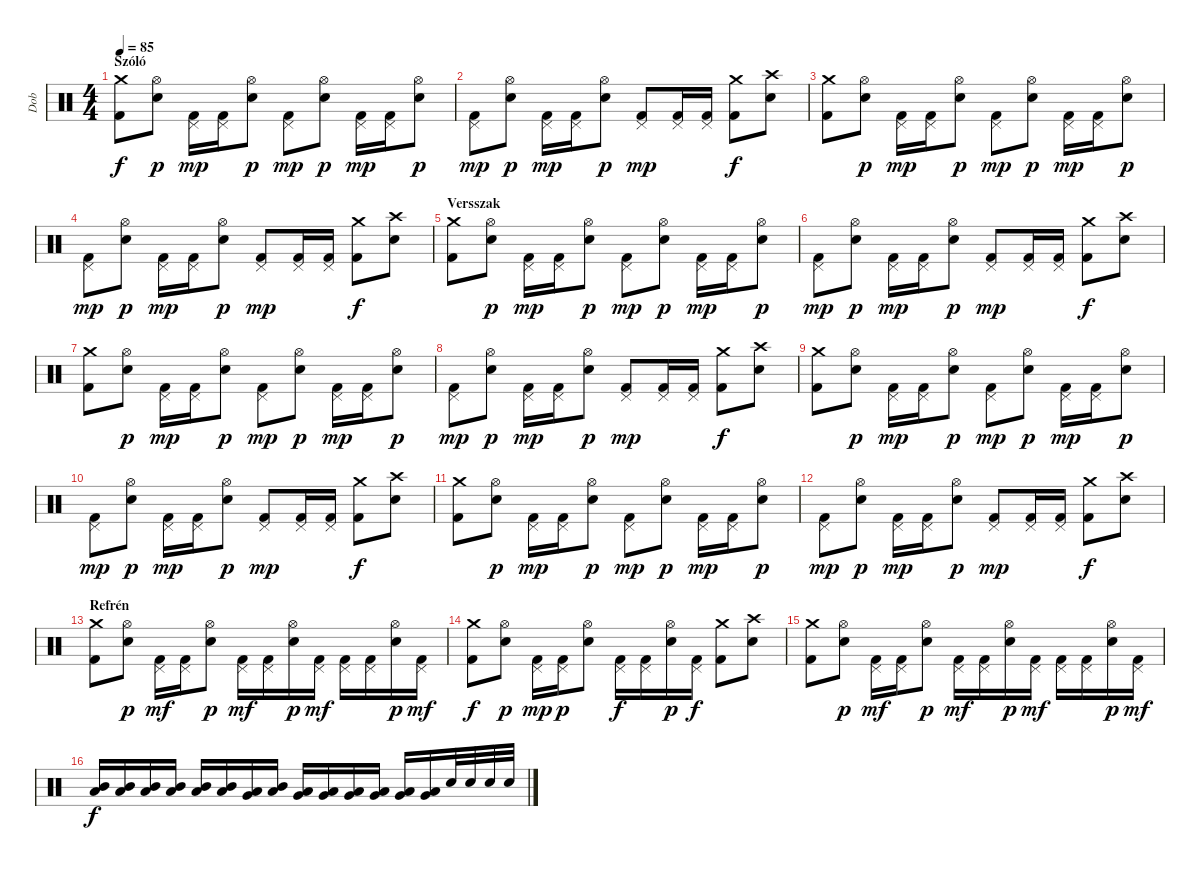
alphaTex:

\track ("Dob" "Dob") {instrument percussion}
\staff {score}
\articulation defaults
\ts (4 4)
\section ("" "Szóló")
\tempo 85
\clef neutral
\ks c
("Kick (hit) 2" "Crash medium (hit)").8{dy f} ("Snare (hit) 2" "Hi-Hat (open)").8{dy p} ("Kick (hit) 2" "Pedal Hi-Hat (hit)").16{dy mp} ("Kick (hit) 2" "Pedal Hi-Hat (hit)").16 ("Snare (hit) 2" "Hi-Hat (open)").8{dy p} ("Kick (hit) 2" "Pedal Hi-Hat (hit)").8{dy mp} ("Snare (hit) 2" "Hi-Hat (open)").8{dy p} ("Kick (hit) 2" "Pedal Hi-Hat (hit)").16{dy mp} ("Kick (hit) 2" "Pedal Hi-Hat (hit)").16 ("Snare (hit) 2" "Hi-Hat (open)").8{dy p} |
("Kick (hit) 2" "Pedal Hi-Hat (hit)").8{dy mp} ("Snare (hit) 2" "Hi-Hat (open)").8{dy p} ("Kick (hit) 2" "Pedal Hi-Hat (hit)").16{dy mp} ("Kick (hit) 2" "Pedal Hi-Hat (hit)").16 ("Snare (hit) 2" "Hi-Hat (open)").8{dy p} ("Kick (hit) 2" "Pedal Hi-Hat (hit)").8{dy mp} ("Kick (hit) 2" "Pedal Hi-Hat (hit)").16 ("Kick (hit) 2" "Pedal Hi-Hat (hit)").16 ("Kick (hit) 2" "Crash medium (hit)").8{dy f} ("Snare (hit) 2" "Crash high (hit)").8 |
("Kick (hit) 2" "Crash medium (hit)").8 ("Snare (hit) 2" "Hi-Hat (open)").8{dy p} ("Kick (hit) 2" "Pedal Hi-Hat (hit)").16{dy mp} ("Kick (hit) 2" "Pedal Hi-Hat (hit)").16 ("Snare (hit) 2" "Hi-Hat (open)").8{dy p} ("Kick (hit) 2" "Pedal Hi-Hat (hit)").8{dy mp} ("Snare (hit) 2" "Hi-Hat (open)").8{dy p} ("Kick (hit) 2" "Pedal Hi-Hat (hit)").16{dy mp} ("Kick (hit) 2" "Pedal Hi-Hat (hit)").16 ("Snare (hit) 2" "Hi-Hat (open)").8{dy p} |
("Kick (hit) 2" "Pedal Hi-Hat (hit)").8{dy mp} ("Snare (hit) 2" "Hi-Hat (open)").8{dy p} ("Kick (hit) 2" "Pedal Hi-Hat (hit)").16{dy mp} ("Kick (hit) 2" "Pedal Hi-Hat (hit)").16 ("Snare (hit) 2" "Hi-Hat (open)").8{dy p} ("Kick (hit) 2" "Pedal Hi-Hat (hit)").8{dy mp} ("Kick (hit) 2" "Pedal Hi-Hat (hit)").16 ("Kick (hit) 2" "Pedal Hi-Hat (hit)").16 ("Kick (hit) 2" "Crash medium (hit)").8{dy f} ("Snare (hit) 2" "Crash high (hit)").8 |
\section ("" "Versszak")
("Kick (hit) 2" "Crash medium (hit)").8 ("Snare (hit) 2" "Hi-Hat (open)").8{dy p} ("Kick (hit) 2" "Pedal Hi-Hat (hit)").16{dy mp} ("Kick (hit) 2" "Pedal Hi-Hat (hit)").16 ("Snare (hit) 2" "Hi-Hat (open)").8{dy p} ("Kick (hit) 2" "Pedal Hi-Hat (hit)").8{dy mp} ("Snare (hit) 2" "Hi-Hat (open)").8{dy p} ("Kick (hit) 2" "Pedal Hi-Hat (hit)").16{dy mp} ("Kick (hit) 2" "Pedal Hi-Hat (hit)").16 ("Snare (hit) 2" "Hi-Hat (open)").8{dy p} |
("Kick (hit) 2" "Pedal Hi-Hat (hit)").8{dy mp} ("Snare (hit) 2" "Hi-Hat (open)").8{dy p} ("Kick (hit) 2" "Pedal Hi-Hat (hit)").16{dy mp} ("Kick (hit) 2" "Pedal Hi-Hat (hit)").16 ("Snare (hit) 2" "Hi-Hat (open)").8{dy p} ("Kick (hit) 2" "Pedal Hi-Hat (hit)").8{dy mp} ("Kick (hit) 2" "Pedal Hi-Hat (hit)").16 ("Kick (hit) 2" "Pedal Hi-Hat (hit)").16 ("Kick (hit) 2" "Crash medium (hit)").8{dy f} ("Snare (hit) 2" "Crash high (hit)").8 |
("Kick (hit) 2" "Crash medium (hit)").8 ("Snare (hit) 2" "Hi-Hat (open)").8{dy p} ("Kick (hit) 2" "Pedal Hi-Hat (hit)").16{dy mp} ("Kick (hit) 2" "Pedal Hi-Hat (hit)").16 ("Snare (hit) 2" "Hi-Hat (open)").8{dy p} ("Kick (hit) 2" "Pedal Hi-Hat (hit)").8{dy mp} ("Snare (hit) 2" "Hi-Hat (open)").8{dy p} ("Kick (hit) 2" "Pedal Hi-Hat (hit)").16{dy mp} ("Kick (hit) 2" "Pedal Hi-Hat (hit)").16 ("Snare (hit) 2" "Hi-Hat (open)").8{dy p} |
("Kick (hit) 2" "Pedal Hi-Hat (hit)").8{dy mp} ("Snare (hit) 2" "Hi-Hat (open)").8{dy p} ("Kick (hit) 2" "Pedal Hi-Hat (hit)").16{dy mp} ("Kick (hit) 2" "Pedal Hi-Hat (hit)").16 ("Snare (hit) 2" "Hi-Hat (open)").8{dy p} ("Kick (hit) 2" "Pedal Hi-Hat (hit)").8{dy mp} ("Kick (hit) 2" "Pedal Hi-Hat (hit)").16 ("Kick (hit) 2" "Pedal Hi-Hat (hit)").16 ("Kick (hit) 2" "Crash medium (hit)").8{dy f} ("Snare (hit) 2" "Crash high (hit)").8 |
("Kick (hit) 2" "Crash medium (hit)").8 ("Snare (hit) 2" "Hi-Hat (open)").8{dy p} ("Kick (hit) 2" "Pedal Hi-Hat (hit)").16{dy mp} ("Kick (hit) 2" "Pedal Hi-Hat (hit)").16 ("Snare (hit) 2" "Hi-Hat (open)").8{dy p} ("Kick (hit) 2" "Pedal Hi-Hat (hit)").8{dy mp} ("Snare (hit) 2" "Hi-Hat (open)").8{dy p} ("Kick (hit) 2" "Pedal Hi-Hat (hit)").16{dy mp} ("Kick (hit) 2" "Pedal Hi-Hat (hit)").16 ("Snare (hit) 2" "Hi-Hat (open)").8{dy p} |
("Kick (hit) 2" "Pedal Hi-Hat (hit)").8{dy mp} ("Snare (hit) 2" "Hi-Hat (open)").8{dy p} ("Kick (hit) 2" "Pedal Hi-Hat (hit)").16{dy mp} ("Kick (hit) 2" "Pedal Hi-Hat (hit)").16 ("Snare (hit) 2" "Hi-Hat (open)").8{dy p} ("Kick (hit) 2" "Pedal Hi-Hat (hit)").8{dy mp} ("Kick (hit) 2" "Pedal Hi-Hat (hit)").16 ("Kick (hit) 2" "Pedal Hi-Hat (hit)").16 ("Kick (hit) 2" "Crash medium (hit)").8{dy f} ("Snare (hit) 2" "Crash high (hit)").8 |
("Kick (hit) 2" "Crash medium (hit)").8 ("Snare (hit) 2" "Hi-Hat (open)").8{dy p} ("Kick (hit) 2" "Pedal Hi-Hat (hit)").16{dy mp} ("Kick (hit) 2" "Pedal Hi-Hat (hit)").16 ("Snare (hit) 2" "Hi-Hat (open)").8{dy p} ("Kick (hit) 2" "Pedal Hi-Hat (hit)").8{dy mp} ("Snare (hit) 2" "Hi-Hat (open)").8{dy p} ("Kick (hit) 2" "Pedal Hi-Hat (hit)").16{dy mp} ("Kick (hit) 2" "Pedal Hi-Hat (hit)").16 ("Snare (hit) 2" "Hi-Hat (open)").8{dy p} |
("Kick (hit) 2" "Pedal Hi-Hat (hit)").8{dy mp} ("Snare (hit) 2" "Hi-Hat (open)").8{dy p} ("Kick (hit) 2" "Pedal Hi-Hat (hit)").16{dy mp} ("Kick (hit) 2" "Pedal Hi-Hat (hit)").16 ("Snare (hit) 2" "Hi-Hat (open)").8{dy p} ("Kick (hit) 2" "Pedal Hi-Hat (hit)").8{dy mp} ("Kick (hit) 2" "Pedal Hi-Hat (hit)").16 ("Kick (hit) 2" "Pedal Hi-Hat (hit)").16 ("Kick (hit) 2" "Crash medium (hit)").8{dy f} ("Snare (hit) 2" "Crash high (hit)").8 |
\section ("" "Refrén")
("Kick (hit) 2" "Crash medium (hit)").8 ("Snare (hit) 2" "Hi-Hat (open)").8{dy p} ("Kick (hit) 2" "Pedal Hi-Hat (hit)").16{dy mf} ("Kick (hit) 2" "Pedal Hi-Hat (hit)").16 ("Snare (hit) 2" "Hi-Hat (open)").8{dy p} ("Kick (hit) 2" "Pedal Hi-Hat (hit)").16{dy mf} ("Kick (hit) 2" "Pedal Hi-Hat (hit)").16 ("Snare (hit) 2" "Hi-Hat (open)").16{dy p} ("Kick (hit) 2" "Pedal Hi-Hat (hit)").16{dy mf} ("Kick (hit) 2" "Pedal Hi-Hat (hit)").16 ("Kick (hit) 2" "Pedal Hi-Hat (hit)").16 ("Snare (hit) 2" "Hi-Hat (open)").16{dy p} ("Kick (hit) 2" "Pedal Hi-Hat (hit)").16{dy mf} |
("Kick (hit) 2" "Crash medium (hit)").8{dy f} ("Snare (hit) 2" "Hi-Hat (open)").8{dy p} ("Kick (hit) 2" "Pedal Hi-Hat (hit)").16{dy mp} ("Kick (hit) 2" "Pedal Hi-Hat (hit)").16{dy p} ("Snare (hit) 2" "Hi-Hat (open)").8 ("Kick (hit) 2" "Pedal Hi-Hat (hit)").16{dy f} ("Kick (hit) 2" "Pedal Hi-Hat (hit)").16 ("Snare (hit) 2" "Hi-Hat (open)").16{dy p} ("Kick (hit) 2" "Pedal Hi-Hat (hit)").16{dy f} ("Kick (hit) 2" "Crash medium (hit)").8 ("Snare (hit) 2" "Crash high (hit)").8 |
("Kick (hit) 2" "Crash medium (hit)").8 ("Snare (hit) 2" "Hi-Hat (open)").8{dy p} ("Kick (hit) 2" "Pedal Hi-Hat (hit)").16{dy mf} ("Kick (hit) 2" "Pedal Hi-Hat (hit)").16 ("Snare (hit) 2" "Hi-Hat (open)").8{dy p} ("Kick (hit) 2" "Pedal Hi-Hat (hit)").16{dy mf} ("Kick (hit) 2" "Pedal Hi-Hat (hit)").16 ("Snare (hit) 2" "Hi-Hat (open)").16{dy p} ("Kick (hit) 2" "Pedal Hi-Hat (hit)").16{dy mf} ("Kick (hit) 2" "Pedal Hi-Hat (hit)").16 ("Kick (hit) 2" "Pedal Hi-Hat (hit)").16 ("Snare (hit) 2" "Hi-Hat (open)").16{dy p} ("Kick (hit) 2" "Pedal Hi-Hat (hit)").16{dy mf} |
("Mid Tom (hit)" "Low Tom (hit)").16{dy f} ("Mid Tom (hit)" "Low Tom (hit)").16 ("Mid Tom (hit)" "Low Tom (hit)").16 ("Mid Tom (hit)" "Low Tom (hit)").16 ("Mid Tom (hit)" "Low Tom (hit)").16 ("Mid Tom (hit)" "Low Tom (hit)").16 ("Low Tom (hit)" "Very Low Tom (hit)").16 ("Mid Tom (hit)" "Low Tom (hit)").16 ("Low Tom (hit)" "Very Low Tom (hit)").16 ("Low Tom (hit)" "Very Low Tom (hit)").16 ("Low Tom (hit)" "Very Low Tom (hit)").16 ("Low Tom (hit)" "Very Low Tom (hit)").16 ("Low Tom (hit)" "Very Low Tom (hit)").16 ("Low Tom (hit)" "Very Low Tom (hit)").16 "Snare (hit) 2".32 "Snare (hit) 2".32 "Snare (hit) 2".32 "Snare (hit) 2".32
